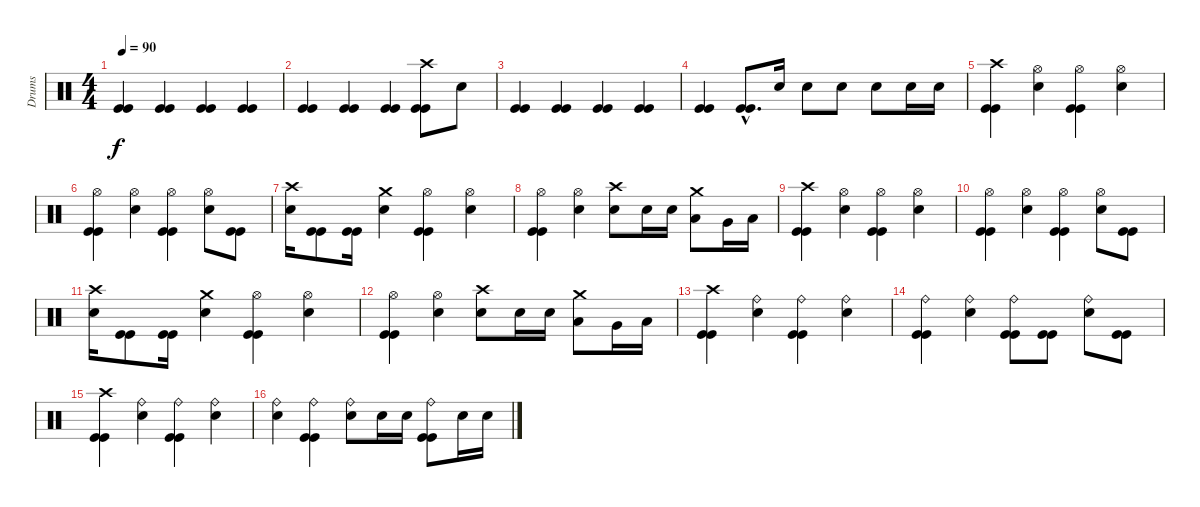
\track ("Drums" "Drums") {instrument percussion}
\staff {score}
\articulation defaults
\ts (4 4)
\tempo 90
\clef neutral
\ks c
("Kick (hit)" "Kick (hit)").4{dy f} ("Kick (hit)" "Kick (hit)").4 ("Kick (hit)" "Kick (hit)").4 ("Kick (hit)" "Kick (hit)").4 |
("Kick (hit)" "Kick (hit)").4 ("Kick (hit)" "Kick (hit)").4 ("Kick (hit)" "Kick (hit)").4 ("Kick (hit)" "Kick (hit)" "Crash high (hit)").8 "Snare (hit) 2".8 |
("Kick (hit)" "Kick (hit)").4 ("Kick (hit)" "Kick (hit)").4 ("Kick (hit)" "Kick (hit)").4 ("Kick (hit)" "Kick (hit)").4 |
("Kick (hit)" "Kick (hit)").4 ("Kick (hit)"{hac} "Kick (hit)"{hac}).8{d} "Snare (hit) 2".16 "Snare (hit) 2".8 "Snare (hit) 2".8 "Snare (hit) 2".8 "Snare (hit) 2".16 "Snare (hit) 2".16 |
("Kick (hit)" "Kick (hit)" "Crash high (hit)").4 ("Snare (hit) 2" "Hi-Hat (open)").4 ("Kick (hit)" "Kick (hit)" "Hi-Hat (open)").4 ("Snare (hit) 2" "Hi-Hat (open)").4 |
("Kick (hit)" "Kick (hit)" "Hi-Hat (open)").4 ("Snare (hit) 2" "Hi-Hat (open)").4 ("Kick (hit)" "Kick (hit)" "Hi-Hat (open)").4 ("Snare (hit) 2" "Hi-Hat (open)").8 ("Kick (hit)" "Kick (hit)").8 |
("Snare (hit) 2" "Crash high (hit)").16 ("Kick (hit)" "Kick (hit)").8 ("Kick (hit)" "Kick (hit)").16 ("Snare (hit) 2" "Crash medium (hit)").4 ("Kick (hit)" "Kick (hit)" "Hi-Hat (open)").4 ("Snare (hit) 2" "Hi-Hat (open)").4 |
("Kick (hit)" "Kick (hit)" "Hi-Hat (open)").4 ("Snare (hit) 2" "Hi-Hat (open)").4 ("Snare (hit) 2" "Crash high (hit)").8 "Snare (hit) 2".16 "Snare (hit) 2".16 ("Low Tom (hit)" "Crash medium (hit)").8 "Very Low Tom (hit)".16 "Low Floor Tom (hit)".16 |
("Kick (hit)" "Kick (hit)" "Crash high (hit)").4 ("Snare (hit) 2" "Hi-Hat (open)").4 ("Kick (hit)" "Kick (hit)" "Hi-Hat (open)").4 ("Snare (hit) 2" "Hi-Hat (open)").4 |
("Kick (hit)" "Kick (hit)" "Hi-Hat (open)").4 ("Snare (hit) 2" "Hi-Hat (open)").4 ("Kick (hit)" "Kick (hit)" "Hi-Hat (open)").4 ("Snare (hit) 2" "Hi-Hat (open)").8 ("Kick (hit)" "Kick (hit)").8 |
("Snare (hit) 2" "Crash high (hit)").16 ("Kick (hit)" "Kick (hit)").8 ("Kick (hit)" "Kick (hit)").16 ("Snare (hit) 2" "Crash medium (hit)").4 ("Kick (hit)" "Kick (hit)" "Hi-Hat (open)").4 ("Snare (hit) 2" "Hi-Hat (open)").4 |
("Kick (hit)" "Kick (hit)" "Hi-Hat (open)").4 ("Snare (hit) 2" "Hi-Hat (open)").4 ("Snare (hit) 2" "Crash high (hit)").8 "Snare (hit) 2".16 "Snare (hit) 2".16 ("Low Tom (hit)" "Crash medium (hit)").8 "Very Low Tom (hit)".16 "Low Floor Tom (hit)".16 |
("Kick (hit)" "Kick (hit)" "Crash high (hit)").4 ("Snare (hit) 2" "Ride (bell)").4 ("Kick (hit)" "Kick (hit)" "Ride (bell)").4 ("Snare (hit) 2" "Ride (bell)").4 |
("Kick (hit)" "Kick (hit)" "Ride (bell)").4 ("Snare (hit) 2" "Ride (bell)").4 ("Kick (hit)" "Kick (hit)" "Ride (bell)").8 ("Kick (hit)" "Kick (hit)").8 ("Snare (hit) 2" "Ride (bell)").8 ("Kick (hit)" "Kick (hit)").8 |
("Kick (hit)" "Kick (hit)" "Crash high (hit)").4 ("Snare (hit) 2" "Ride (bell)").4 ("Kick (hit)" "Kick (hit)" "Ride (bell)").4 ("Snare (hit) 2" "Ride (bell)").4 |
("Snare (hit) 2" "Ride (bell)").4 ("Kick (hit)" "Kick (hit)" "Ride (bell)").4 ("Snare (hit) 2" "Ride (bell)").8 "Snare (hit) 2".16 "Snare (hit) 2".16 ("Kick (hit)" "Kick (hit)" "Ride (bell)").8 "Snare (hit) 2".16 "Snare (hit) 2".16
